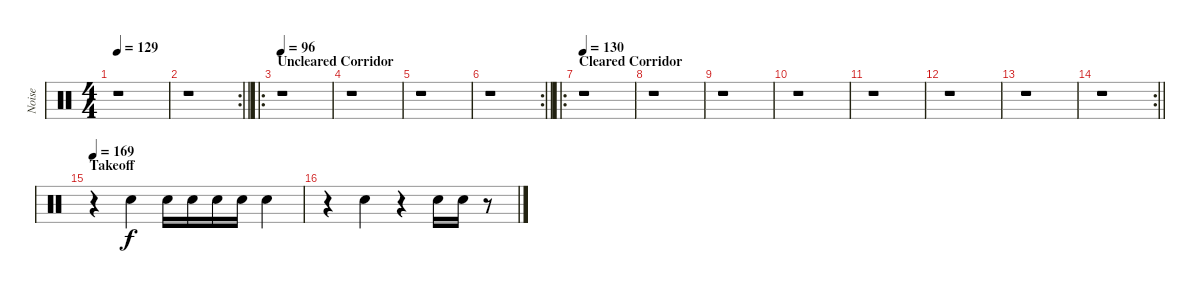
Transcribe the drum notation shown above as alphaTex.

\track ("Noise" "Noise") {instrument percussion}
\staff {score}
\articulation defaults
\ts (4 4)
\tempo 129
\clef neutral
\ks c
r.1{dy f} |
\rc 2
\barLineRight lightlight
r.1 |
\ro
\section ("" "Uncleared Corridor")
\tempo 96
r.1{volume 13} |
r.1 |
r.1 |
\rc 2
\barLineRight lightlight
r.1 |
\ro
\section ("" "Cleared Corridor")
\tempo 130
r.1{volume 13} |
r.1 |
r.1 |
r.1 |
r.1 |
r.1 |
r.1 |
\rc 2
\barLineRight lightlight
r.1 |
\section ("" "Takeoff")
\tempo 169
r.4{volume 13} "Snare (hit) 2".4 "Snare (hit) 2".16 "Snare (hit) 2".16 "Snare (hit) 2".16 "Snare (hit) 2".16 "Snare (hit) 2".4 |
r.4 "Snare (hit) 2".4 r.4 "Snare (hit) 2".16 "Snare (hit) 2".16 r.8
